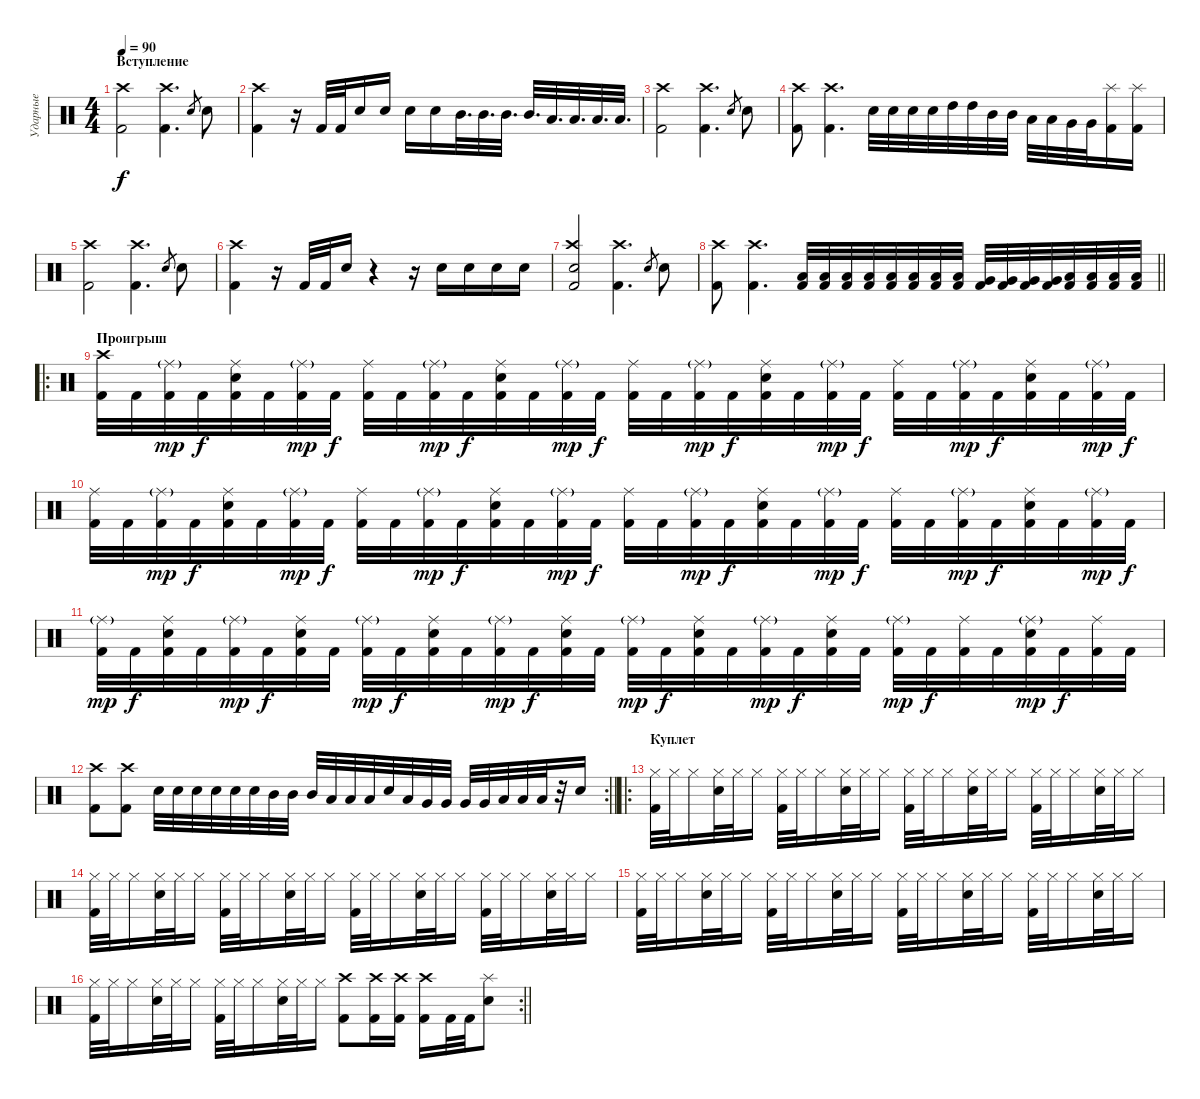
\track ("Ударные" "Ударные") {instrument percussion}
\staff {score}
\articulation defaults
\ts (4 4)
\section ("" "Вступление")
\tempo 90
\clef neutral
\ks c
("Kick (hit) 2" "Crash high (hit)").2{dy f} ("Kick (hit) 2" "Crash high (hit)").4{d} "Electric Snare (hit)".8{gr} "Electric Snare (hit)".8 |
("Kick (hit) 2" "Crash high (hit)").4 r.16 "Kick (hit) 2".32 "Kick (hit) 2".32 "Electric Snare (hit)".16 "Electric Snare (hit)".16 "Electric Snare (hit)".16 "Electric Snare (hit)".16 "Mid Tom (hit)".32{d} "Mid Tom (hit)".32{d} "Mid Tom (hit)".32{d} "Mid Tom (hit)".32{d} "Low Tom (hit)".32{d} "Low Tom (hit)".32{d} "Low Tom (hit)".32{d} "Low Tom (hit)".32{d} |
("Kick (hit) 2" "Crash high (hit)").2 ("Kick (hit) 2" "Crash high (hit)").4{d} "Electric Snare (hit)".8{gr} "Electric Snare (hit)".8 |
("Kick (hit) 2" "Crash high (hit)").8 ("Kick (hit) 2" "Crash high (hit)").4{d} "Electric Snare (hit)".32 "Electric Snare (hit)".32 "Electric Snare (hit)".32 "Electric Snare (hit)".32 "High Tom (hit)".32 "High Tom (hit)".32 "Mid Tom (hit)".32 "Mid Tom (hit)".32 "Low Tom (hit)".32 "Low Tom (hit)".32 "Very Low Tom (hit)".32 "Very Low Tom (hit)".32 ("Kick (hit) 2" "Splash (hit)").16 ("Kick (hit) 2" "Splash (hit)").16 |
("Kick (hit) 2" "Crash high (hit)").2 ("Kick (hit) 2" "Crash high (hit)").4{d} "Electric Snare (hit)".8{gr} "Electric Snare (hit)".8 |
("Kick (hit) 2" "Crash high (hit)").4 r.16 "Kick (hit) 2".32 "Kick (hit) 2".32 "Electric Snare (hit)".16 r.4 r.16 "Electric Snare (hit)".16 "Electric Snare (hit)".16 "Electric Snare (hit)".16 "Electric Snare (hit)".16 |
("Kick (hit) 2" "Crash high (hit)" "Electric Snare (hit)").2 ("Kick (hit) 2" "Crash high (hit)").4{d} "Electric Snare (hit)".8{gr} "Electric Snare (hit)".8 |
\barLineRight lightlight
("Kick (hit) 2" "Crash high (hit)").8 ("Kick (hit) 2" "Crash high (hit)").4{d} ("Low Tom (hit)" "Kick (hit) 2").32 ("Low Tom (hit)" "Kick (hit) 2").32 ("Low Tom (hit)" "Kick (hit) 2").32 ("Low Tom (hit)" "Kick (hit) 2").32 ("Low Tom (hit)" "Kick (hit) 2").32 ("Low Tom (hit)" "Kick (hit) 2").32 ("Low Tom (hit)" "Kick (hit) 2").32 ("Low Tom (hit)" "Kick (hit) 2").32 ("Very Low Tom (hit)" "Kick (hit) 2").32 ("Very Low Tom (hit)" "Kick (hit) 2").32 ("Very Low Tom (hit)" "Kick (hit) 2").32 ("Very Low Tom (hit)" "Kick (hit) 2").32 ("Low Floor Tom (hit)" "Kick (hit) 2").32 ("Low Floor Tom (hit)" "Kick (hit) 2").32 ("Low Floor Tom (hit)" "Kick (hit) 2").32 ("Low Floor Tom (hit)" "Kick (hit) 2").32 |
\ro
\section ("" "Проигрыш")
("Kick (hit) 2" "Crash high (hit)").32 "Kick (hit) 2".32 ("Kick (hit) 2" "Ride (middle)"{g}).32{dy mp} "Kick (hit) 2".32{dy f} ("Kick (hit) 2" "Electric Snare (hit)" "Ride (middle)").32 "Kick (hit) 2".32 ("Kick (hit) 2" "Ride (middle)"{g}).32{dy mp} "Kick (hit) 2".32{dy f} ("Kick (hit) 2" "Ride (middle)").32 "Kick (hit) 2".32 ("Kick (hit) 2" "Ride (middle)"{g}).32{dy mp} "Kick (hit) 2".32{dy f} ("Kick (hit) 2" "Electric Snare (hit)" "Ride (middle)").32 "Kick (hit) 2".32 ("Kick (hit) 2" "Ride (middle)"{g}).32{dy mp} "Kick (hit) 2".32{dy f} ("Kick (hit) 2" "Ride (middle)").32 "Kick (hit) 2".32 ("Kick (hit) 2" "Ride (middle)"{g}).32{dy mp} "Kick (hit) 2".32{dy f} ("Kick (hit) 2" "Electric Snare (hit)" "Ride (middle)").32 "Kick (hit) 2".32 ("Kick (hit) 2" "Ride (middle)"{g}).32{dy mp} "Kick (hit) 2".32{dy f} ("Kick (hit) 2" "Ride (middle)").32 "Kick (hit) 2".32 ("Kick (hit) 2" "Ride (middle)"{g}).32{dy mp} "Kick (hit) 2".32{dy f} ("Kick (hit) 2" "Electric Snare (hit)" "Ride (middle)").32 "Kick (hit) 2".32 ("Kick (hit) 2" "Ride (middle)"{g}).32{dy mp} "Kick (hit) 2".32{dy f} |
("Kick (hit) 2" "Ride (middle)").32 "Kick (hit) 2".32 ("Kick (hit) 2" "Ride (middle)"{g}).32{dy mp} "Kick (hit) 2".32{dy f} ("Kick (hit) 2" "Electric Snare (hit)" "Ride (middle)").32 "Kick (hit) 2".32 ("Kick (hit) 2" "Ride (middle)"{g}).32{dy mp} "Kick (hit) 2".32{dy f} ("Kick (hit) 2" "Ride (middle)").32 "Kick (hit) 2".32 ("Kick (hit) 2" "Ride (middle)"{g}).32{dy mp} "Kick (hit) 2".32{dy f} ("Kick (hit) 2" "Electric Snare (hit)" "Ride (middle)").32 "Kick (hit) 2".32 ("Kick (hit) 2" "Ride (middle)"{g}).32{dy mp} "Kick (hit) 2".32{dy f} ("Kick (hit) 2" "Ride (middle)").32 "Kick (hit) 2".32 ("Kick (hit) 2" "Ride (middle)"{g}).32{dy mp} "Kick (hit) 2".32{dy f} ("Kick (hit) 2" "Electric Snare (hit)" "Ride (middle)").32 "Kick (hit) 2".32 ("Kick (hit) 2" "Ride (middle)"{g}).32{dy mp} "Kick (hit) 2".32{dy f} ("Kick (hit) 2" "Ride (middle)").32 "Kick (hit) 2".32 ("Kick (hit) 2" "Ride (middle)"{g}).32{dy mp} "Kick (hit) 2".32{dy f} ("Kick (hit) 2" "Electric Snare (hit)" "Ride (middle)").32 "Kick (hit) 2".32 ("Kick (hit) 2" "Ride (middle)"{g}).32{dy mp} "Kick (hit) 2".32{dy f} |
("Kick (hit) 2" "Ride (middle)"{g}).32{dy mp} "Kick (hit) 2".32{dy f} ("Kick (hit) 2" "Electric Snare (hit)" "Ride (middle)").32 "Kick (hit) 2".32 ("Kick (hit) 2" "Ride (middle)"{g}).32{dy mp} "Kick (hit) 2".32{dy f} ("Kick (hit) 2" "Electric Snare (hit)" "Ride (middle)").32 "Kick (hit) 2".32 ("Kick (hit) 2" "Ride (middle)"{g}).32{dy mp} "Kick (hit) 2".32{dy f} ("Kick (hit) 2" "Electric Snare (hit)" "Ride (middle)").32 "Kick (hit) 2".32 ("Kick (hit) 2" "Ride (middle)"{g}).32{dy mp} "Kick (hit) 2".32{dy f} ("Kick (hit) 2" "Electric Snare (hit)" "Ride (middle)").32 "Kick (hit) 2".32 ("Kick (hit) 2" "Ride (middle)"{g}).32{dy mp} "Kick (hit) 2".32{dy f} ("Kick (hit) 2" "Electric Snare (hit)" "Ride (middle)").32 "Kick (hit) 2".32 ("Kick (hit) 2" "Ride (middle)"{g}).32{dy mp} "Kick (hit) 2".32{dy f} ("Kick (hit) 2" "Electric Snare (hit)" "Ride (middle)").32 "Kick (hit) 2".32 ("Kick (hit) 2" "Ride (middle)"{g}).32{dy mp} "Kick (hit) 2".32{dy f} ("Kick (hit) 2" "Ride (middle)").32 "Kick (hit) 2".32 ("Kick (hit) 2" "Electric Snare (hit)" "Ride (middle)"{g}).32{dy mp} "Kick (hit) 2".32{dy f} ("Kick (hit) 2" "Ride (middle)").32 "Kick (hit) 2".32 |
\rc 2
\barLineRight lightlight
("Kick (hit) 2" "Crash high (hit)").8 ("Kick (hit) 2" "Crash high (hit)").8 "Electric Snare (hit)".32 "Electric Snare (hit)".32 "Electric Snare (hit)".32 "Electric Snare (hit)".32 "Electric Snare (hit)".32 "Electric Snare (hit)".32 "Mid Tom (hit)".32 "Mid Tom (hit)".32 "Mid Tom (hit)".32 "Low Tom (hit)".32 "Low Tom (hit)".32 "Low Tom (hit)".32 "Electric Snare (hit)".32 "Low Tom (hit)".32 "Very Low Tom (hit)".32 "Very Low Tom (hit)".32 "Very Low Tom (hit)".32 "Very Low Tom (hit)".32 "Low Floor Tom (hit)".32 "Low Floor Tom (hit)".32 "Low Floor Tom (hit)".32 r.32 "Electric Snare (hit)".16 |
\ro
\section ("" "Куплет")
("Hi-Hat (closed)" "Kick (hit) 2").32 "Hi-Hat (closed)".32 "Hi-Hat (closed)".16 ("Hi-Hat (closed)" "Electric Snare (hit)").32 "Hi-Hat (closed)".32 "Hi-Hat (closed)".16 ("Hi-Hat (closed)" "Kick (hit) 2").32 "Hi-Hat (closed)".32 "Hi-Hat (closed)".16 ("Hi-Hat (closed)" "Electric Snare (hit)").32 "Hi-Hat (closed)".32 "Hi-Hat (closed)".16 ("Hi-Hat (closed)" "Kick (hit) 2").32 "Hi-Hat (closed)".32 "Hi-Hat (closed)".16 ("Hi-Hat (closed)" "Electric Snare (hit)").32 "Hi-Hat (closed)".32 "Hi-Hat (closed)".16 ("Hi-Hat (closed)" "Kick (hit) 2").32 "Hi-Hat (closed)".32 "Hi-Hat (closed)".16 ("Hi-Hat (closed)" "Electric Snare (hit)").32 "Hi-Hat (closed)".32 "Hi-Hat (closed)".16 |
("Hi-Hat (closed)" "Kick (hit) 2").32 "Hi-Hat (closed)".32 "Hi-Hat (closed)".16 ("Hi-Hat (closed)" "Electric Snare (hit)").32 "Hi-Hat (closed)".32 "Hi-Hat (closed)".16 ("Hi-Hat (closed)" "Kick (hit) 2").32 "Hi-Hat (closed)".32 "Hi-Hat (closed)".16 ("Hi-Hat (closed)" "Electric Snare (hit)").32 "Hi-Hat (closed)".32 "Hi-Hat (closed)".16 ("Hi-Hat (closed)" "Kick (hit) 2").32 "Hi-Hat (closed)".32 "Hi-Hat (closed)".16 ("Hi-Hat (closed)" "Electric Snare (hit)").32 "Hi-Hat (closed)".32 "Hi-Hat (closed)".16 ("Hi-Hat (closed)" "Kick (hit) 2").32 "Hi-Hat (closed)".32 "Hi-Hat (closed)".16 ("Hi-Hat (closed)" "Electric Snare (hit)").32 "Hi-Hat (closed)".32 "Hi-Hat (closed)".16 |
("Hi-Hat (closed)" "Kick (hit) 2").32 "Hi-Hat (closed)".32 "Hi-Hat (closed)".16 ("Hi-Hat (closed)" "Electric Snare (hit)").32 "Hi-Hat (closed)".32 "Hi-Hat (closed)".16 ("Hi-Hat (closed)" "Kick (hit) 2").32 "Hi-Hat (closed)".32 "Hi-Hat (closed)".16 ("Hi-Hat (closed)" "Electric Snare (hit)").32 "Hi-Hat (closed)".32 "Hi-Hat (closed)".16 ("Hi-Hat (closed)" "Kick (hit) 2").32 "Hi-Hat (closed)".32 "Hi-Hat (closed)".16 ("Hi-Hat (closed)" "Electric Snare (hit)").32 "Hi-Hat (closed)".32 "Hi-Hat (closed)".16 ("Hi-Hat (closed)" "Kick (hit) 2").32 "Hi-Hat (closed)".32 "Hi-Hat (closed)".16 ("Hi-Hat (closed)" "Electric Snare (hit)").32 "Hi-Hat (closed)".32 "Hi-Hat (closed)".16 |
\rc 2
\barLineRight lightlight
("Hi-Hat (closed)" "Kick (hit) 2").32 "Hi-Hat (closed)".32 "Hi-Hat (closed)".16 ("Hi-Hat (closed)" "Electric Snare (hit)").32 "Hi-Hat (closed)".32 "Hi-Hat (closed)".16 ("Hi-Hat (closed)" "Kick (hit) 2").32 "Hi-Hat (closed)".32 "Hi-Hat (closed)".16 ("Hi-Hat (closed)" "Electric Snare (hit)").32 "Hi-Hat (closed)".32 "Hi-Hat (closed)".16 ("Kick (hit) 2" "Crash high (hit)").8 ("Kick (hit) 2" "Crash high (hit)").16 ("Kick (hit) 2" "Crash high (hit)").16 ("Kick (hit) 2" "Crash high (hit)").16 "Kick (hit) 2".32 "Kick (hit) 2".32 ("Electric Snare (hit)" "Splash (hit)").8
